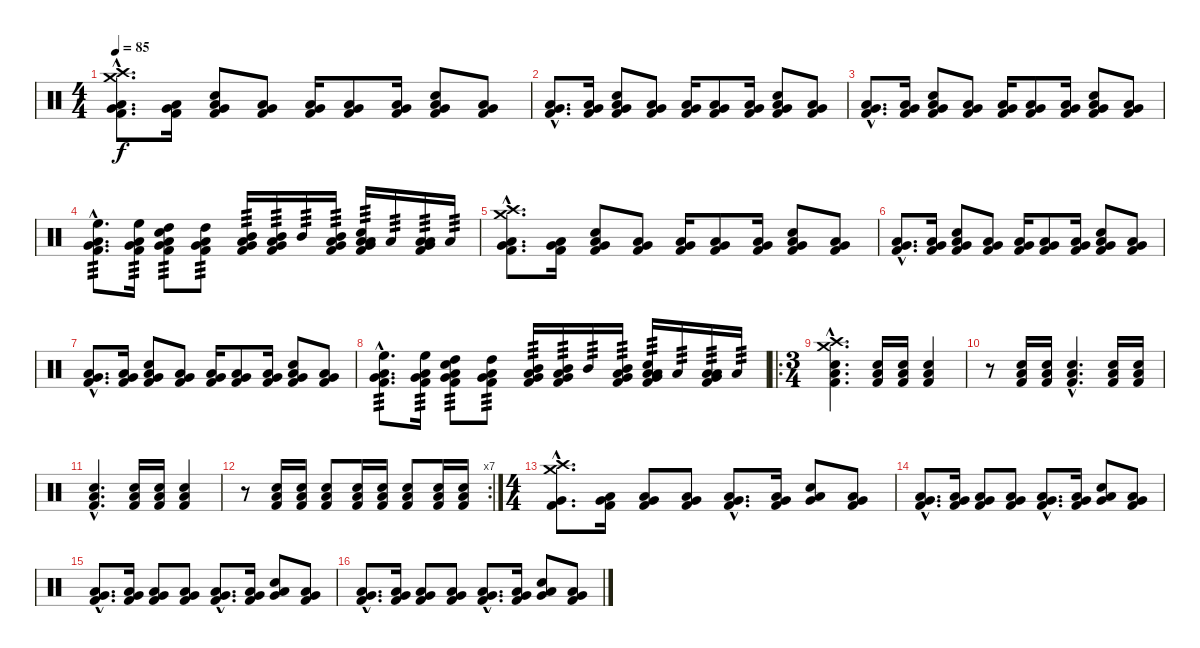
\track "" {instrument percussion}
\staff {score}
\articulation defaults
\ts (4 4)
\tempo 85
\clef neutral
\ks c
("Crash high (hit)"{hac} "Crash medium (hit)"{hac} "Low Tom (hit)"{hac} "Very Low Tom (hit)"{hac} "Kick (hit) 2"{hac}).8{d dy f} ("Low Tom (hit)" "Very Low Tom (hit)" "Kick (hit) 2").16 ("Snare (hit) 2" "Low Tom (hit)" "Very Low Tom (hit)" "Kick (hit) 2").8 ("Low Tom (hit)" "Very Low Tom (hit)" "Kick (hit) 2").8 ("Low Tom (hit)" "Very Low Tom (hit)" "Kick (hit) 2").16 ("Low Tom (hit)" "Very Low Tom (hit)" "Kick (hit) 2").8 ("Low Tom (hit)" "Very Low Tom (hit)" "Kick (hit) 2").16 ("Snare (hit) 2" "Low Tom (hit)" "Very Low Tom (hit)" "Kick (hit) 2").8 ("Low Tom (hit)" "Very Low Tom (hit)" "Kick (hit) 2").8 |
("Low Tom (hit)"{hac} "Very Low Tom (hit)"{hac} "Kick (hit) 2"{hac}).8{d} ("Low Tom (hit)" "Very Low Tom (hit)" "Kick (hit) 2").16 ("Snare (hit) 2" "Low Tom (hit)" "Very Low Tom (hit)" "Kick (hit) 2").8 ("Low Tom (hit)" "Very Low Tom (hit)" "Kick (hit) 2").8 ("Low Tom (hit)" "Very Low Tom (hit)" "Kick (hit) 2").16 ("Low Tom (hit)" "Very Low Tom (hit)" "Kick (hit) 2").8 ("Low Tom (hit)" "Very Low Tom (hit)" "Kick (hit) 2").16 ("Snare (hit) 2" "Low Tom (hit)" "Very Low Tom (hit)" "Kick (hit) 2").8 ("Low Tom (hit)" "Very Low Tom (hit)" "Kick (hit) 2").8 |
("Low Tom (hit)"{hac} "Very Low Tom (hit)"{hac} "Kick (hit) 2"{hac}).8{d} ("Low Tom (hit)" "Very Low Tom (hit)" "Kick (hit) 2").16 ("Snare (hit) 2" "Low Tom (hit)" "Very Low Tom (hit)" "Kick (hit) 2").8 ("Low Tom (hit)" "Very Low Tom (hit)" "Kick (hit) 2").8 ("Low Tom (hit)" "Very Low Tom (hit)" "Kick (hit) 2").16 ("Low Tom (hit)" "Very Low Tom (hit)" "Kick (hit) 2").8 ("Low Tom (hit)" "Very Low Tom (hit)" "Kick (hit) 2").16 ("Snare (hit) 2" "Low Tom (hit)" "Very Low Tom (hit)" "Kick (hit) 2").8 ("Low Tom (hit)" "Very Low Tom (hit)" "Kick (hit) 2").8 |
("High Floor Tom (hit)"{hac} "Low Tom (hit)"{hac} "Very Low Tom (hit)"{hac} "Kick (hit) 2"{hac}).8{d tp 3} ("High Floor Tom (hit)" "Low Tom (hit)" "Very Low Tom (hit)" "Kick (hit) 2").16{tp 3} ("High Tom (hit)" "Snare (hit) 2" "Low Tom (hit)" "Very Low Tom (hit)" "Kick (hit) 2").8{tp 3} ("High Tom (hit)" "Low Tom (hit)" "Very Low Tom (hit)" "Kick (hit) 2").8{tp 3} ("Mid Tom (hit)" "Low Tom (hit)" "Very Low Tom (hit)" "Kick (hit) 2").16{tp 3} ("Mid Tom (hit)" "Low Tom (hit)" "Very Low Tom (hit)" "Kick (hit) 2").16{tp 3} "Mid Tom (hit)".16{tp 3} ("Mid Tom (hit)" "Low Tom (hit)" "Very Low Tom (hit)" "Kick (hit) 2").16{tp 3} ("Low Tom (hit)" "Snare (hit) 2" "Low Tom (hit)" "Very Low Tom (hit)" "Kick (hit) 2").16{tp 3} "Low Tom (hit)".16{tp 3} ("Low Tom (hit)" "Low Tom (hit)" "Very Low Tom (hit)" "Kick (hit) 2").16{tp 3} "Low Tom (hit)".16{tp 3} |
("Crash high (hit)"{hac} "Crash medium (hit)"{hac} "Low Tom (hit)"{hac} "Very Low Tom (hit)"{hac} "Kick (hit) 2"{hac}).8{d} ("Low Tom (hit)" "Very Low Tom (hit)" "Kick (hit) 2").16 ("Snare (hit) 2" "Low Tom (hit)" "Very Low Tom (hit)" "Kick (hit) 2").8 ("Low Tom (hit)" "Very Low Tom (hit)" "Kick (hit) 2").8 ("Low Tom (hit)" "Very Low Tom (hit)" "Kick (hit) 2").16 ("Low Tom (hit)" "Very Low Tom (hit)" "Kick (hit) 2").8 ("Low Tom (hit)" "Very Low Tom (hit)" "Kick (hit) 2").16 ("Snare (hit) 2" "Low Tom (hit)" "Very Low Tom (hit)" "Kick (hit) 2").8 ("Low Tom (hit)" "Very Low Tom (hit)" "Kick (hit) 2").8 |
("Low Tom (hit)"{hac} "Very Low Tom (hit)"{hac} "Kick (hit) 2"{hac}).8{d} ("Low Tom (hit)" "Very Low Tom (hit)" "Kick (hit) 2").16 ("Snare (hit) 2" "Low Tom (hit)" "Very Low Tom (hit)" "Kick (hit) 2").8 ("Low Tom (hit)" "Very Low Tom (hit)" "Kick (hit) 2").8 ("Low Tom (hit)" "Very Low Tom (hit)" "Kick (hit) 2").16 ("Low Tom (hit)" "Very Low Tom (hit)" "Kick (hit) 2").8 ("Low Tom (hit)" "Very Low Tom (hit)" "Kick (hit) 2").16 ("Snare (hit) 2" "Low Tom (hit)" "Very Low Tom (hit)" "Kick (hit) 2").8 ("Low Tom (hit)" "Very Low Tom (hit)" "Kick (hit) 2").8 |
("Low Tom (hit)"{hac} "Very Low Tom (hit)"{hac} "Kick (hit) 2"{hac}).8{d} ("Low Tom (hit)" "Very Low Tom (hit)" "Kick (hit) 2").16 ("Snare (hit) 2" "Low Tom (hit)" "Very Low Tom (hit)" "Kick (hit) 2").8 ("Low Tom (hit)" "Very Low Tom (hit)" "Kick (hit) 2").8 ("Low Tom (hit)" "Very Low Tom (hit)" "Kick (hit) 2").16 ("Low Tom (hit)" "Very Low Tom (hit)" "Kick (hit) 2").8 ("Low Tom (hit)" "Very Low Tom (hit)" "Kick (hit) 2").16 ("Snare (hit) 2" "Low Tom (hit)" "Very Low Tom (hit)" "Kick (hit) 2").8 ("Low Tom (hit)" "Very Low Tom (hit)" "Kick (hit) 2").8 |
("High Floor Tom (hit)"{hac} "Low Tom (hit)"{hac} "Very Low Tom (hit)"{hac} "Kick (hit) 2"{hac}).8{d tp 3} ("High Floor Tom (hit)" "Low Tom (hit)" "Very Low Tom (hit)" "Kick (hit) 2").16{tp 3} ("High Tom (hit)" "Snare (hit) 2" "Low Tom (hit)" "Very Low Tom (hit)" "Kick (hit) 2").8{tp 3} ("High Tom (hit)" "Low Tom (hit)" "Very Low Tom (hit)" "Kick (hit) 2").8{tp 3} ("Mid Tom (hit)" "Low Tom (hit)" "Very Low Tom (hit)" "Kick (hit) 2").16{tp 3} ("Mid Tom (hit)" "Low Tom (hit)" "Very Low Tom (hit)" "Kick (hit) 2").16{tp 3} "Mid Tom (hit)".16{tp 3} ("Mid Tom (hit)" "Low Tom (hit)" "Very Low Tom (hit)" "Kick (hit) 2").16{tp 3} ("Low Tom (hit)" "Snare (hit) 2" "Low Tom (hit)" "Very Low Tom (hit)" "Kick (hit) 2").16{tp 3} "Low Tom (hit)".16{tp 3} ("Low Tom (hit)" "Low Tom (hit)" "Very Low Tom (hit)" "Kick (hit) 2").16{tp 3} "Low Tom (hit)".16{tp 3} |
\ro
\ts (3 4)
("Crash high (hit)"{hac} "Crash medium (hit)"{hac} "Low Floor Tom (hit)"{hac} "Snare (hit) 2"{hac} "Kick (hit) 2"{hac}).4{d} ("Low Floor Tom (hit)" "Snare (hit) 2" "Kick (hit) 2").16 ("Low Floor Tom (hit)" "Snare (hit) 2" "Kick (hit) 2").16 ("Low Floor Tom (hit)" "Snare (hit) 2" "Kick (hit) 2").4 |
r.8 ("Low Floor Tom (hit)" "Snare (hit) 2" "Kick (hit) 2").16 ("Low Floor Tom (hit)" "Snare (hit) 2" "Kick (hit) 2").16 ("Low Floor Tom (hit)"{hac} "Snare (hit) 2"{hac} "Kick (hit) 2"{hac}).4{d} ("Low Floor Tom (hit)" "Snare (hit) 2" "Kick (hit) 2").16 ("Low Floor Tom (hit)" "Snare (hit) 2" "Kick (hit) 2").16 |
("Low Floor Tom (hit)"{hac} "Snare (hit) 2"{hac} "Kick (hit) 2"{hac}).4{d} ("Low Floor Tom (hit)" "Snare (hit) 2" "Kick (hit) 2").16 ("Low Floor Tom (hit)" "Snare (hit) 2" "Kick (hit) 2").16 ("Low Floor Tom (hit)" "Snare (hit) 2" "Kick (hit) 2").4 |
\rc 7
r.8 ("Low Floor Tom (hit)" "Snare (hit) 2" "Kick (hit) 2").16 ("Low Floor Tom (hit)" "Snare (hit) 2" "Kick (hit) 2").16 ("Low Floor Tom (hit)" "Snare (hit) 2" "Kick (hit) 2").8 ("Low Floor Tom (hit)" "Snare (hit) 2" "Kick (hit) 2").16 ("Low Floor Tom (hit)" "Snare (hit) 2" "Kick (hit) 2").16 ("Low Floor Tom (hit)" "Snare (hit) 2" "Kick (hit) 2").8 ("Low Floor Tom (hit)" "Snare (hit) 2" "Kick (hit) 2").16 ("Low Floor Tom (hit)" "Snare (hit) 2" "Kick (hit) 2").16 |
\ts (4 4)
("Crash high (hit)"{hac} "Crash medium (hit)"{hac} "Very Low Tom (hit)"{hac} "Kick (hit) 2"{hac}).8{d} ("Low Tom (hit)" "Very Low Tom (hit)" "Kick (hit) 2").16 ("Low Tom (hit)" "Very Low Tom (hit)" "Kick (hit) 2").8 ("Low Tom (hit)" "Very Low Tom (hit)" "Kick (hit) 2").8 ("Low Tom (hit)"{hac} "Very Low Tom (hit)"{hac} "Kick (hit) 2"{hac}).8{d} ("Low Tom (hit)" "Very Low Tom (hit)" "Kick (hit) 2").16 ("Low Tom (hit)" "Very Low Tom (hit)" "Snare (hit) 2").8 ("Low Tom (hit)" "Very Low Tom (hit)" "Kick (hit) 2").8 |
("Low Tom (hit)"{hac} "Very Low Tom (hit)"{hac} "Kick (hit) 2"{hac}).8{d} ("Low Tom (hit)" "Very Low Tom (hit)" "Kick (hit) 2").16 ("Low Tom (hit)" "Very Low Tom (hit)" "Kick (hit) 2").8 ("Low Tom (hit)" "Very Low Tom (hit)" "Kick (hit) 2").8 ("Low Tom (hit)"{hac} "Very Low Tom (hit)"{hac} "Kick (hit) 2"{hac}).8{d} ("Low Tom (hit)" "Very Low Tom (hit)" "Kick (hit) 2").16 ("Low Tom (hit)" "Very Low Tom (hit)" "Snare (hit) 2").8 ("Low Tom (hit)" "Very Low Tom (hit)" "Kick (hit) 2").8 |
("Low Tom (hit)"{hac} "Very Low Tom (hit)"{hac} "Kick (hit) 2"{hac}).8{d} ("Low Tom (hit)" "Very Low Tom (hit)" "Kick (hit) 2").16 ("Low Tom (hit)" "Very Low Tom (hit)" "Kick (hit) 2").8 ("Low Tom (hit)" "Very Low Tom (hit)" "Kick (hit) 2").8 ("Low Tom (hit)"{hac} "Very Low Tom (hit)"{hac} "Kick (hit) 2"{hac}).8{d} ("Low Tom (hit)" "Very Low Tom (hit)" "Kick (hit) 2").16 ("Low Tom (hit)" "Very Low Tom (hit)" "Snare (hit) 2").8 ("Low Tom (hit)" "Very Low Tom (hit)" "Kick (hit) 2").8 |
("Low Tom (hit)"{hac} "Very Low Tom (hit)"{hac} "Kick (hit) 2"{hac}).8{d} ("Low Tom (hit)" "Very Low Tom (hit)" "Kick (hit) 2").16 ("Low Tom (hit)" "Very Low Tom (hit)" "Kick (hit) 2").8 ("Low Tom (hit)" "Very Low Tom (hit)" "Kick (hit) 2").8 ("Low Tom (hit)"{hac} "Very Low Tom (hit)"{hac} "Kick (hit) 2"{hac}).8{d} ("Low Tom (hit)" "Very Low Tom (hit)" "Kick (hit) 2").16 ("Low Tom (hit)" "Very Low Tom (hit)" "Snare (hit) 2").8 ("Low Tom (hit)" "Very Low Tom (hit)" "Kick (hit) 2").8
